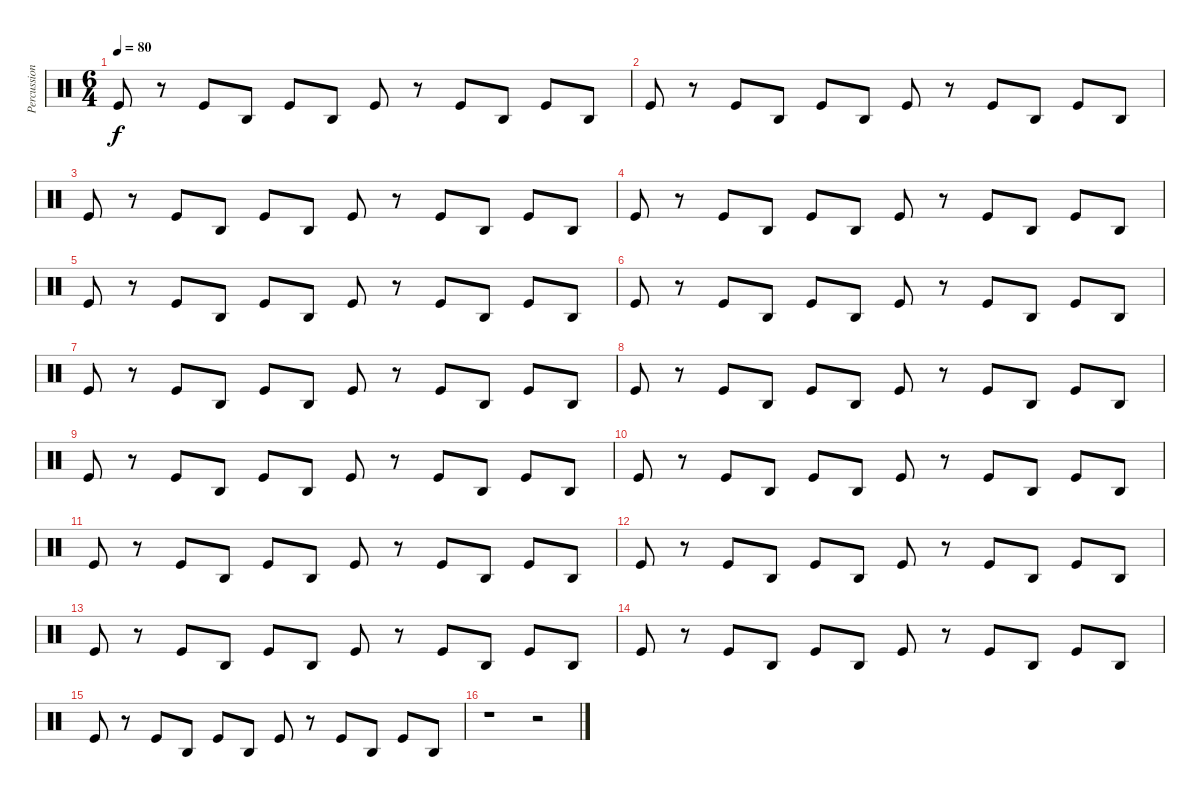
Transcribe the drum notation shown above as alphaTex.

\track ("Percussion" "Percussion") {instrument percussion}
\staff {score}
\articulation defaults
\ts (6 4)
\tempo 80
\clef neutral
\ks c "Kick (hit)".8{dy f}
r.8 "Kick (hit)".8 "Agogo high (hit)".8 "Kick (hit)".8 "Agogo high (hit)".8 "Kick (hit)".8 r.8 "Kick (hit)".8 "Agogo high (hit)".8 "Kick (hit)".8 "Agogo high (hit)".8 |
"Kick (hit)".8 r.8 "Kick (hit)".8 "Agogo high (hit)".8 "Kick (hit)".8 "Agogo high (hit)".8 "Kick (hit)".8 r.8 "Kick (hit)".8 "Agogo high (hit)".8 "Kick (hit)".8 "Agogo high (hit)".8 |
"Kick (hit)".8 r.8 "Kick (hit)".8 "Agogo high (hit)".8 "Kick (hit)".8 "Agogo high (hit)".8 "Kick (hit)".8 r.8 "Kick (hit)".8 "Agogo high (hit)".8 "Kick (hit)".8 "Agogo high (hit)".8 |
"Kick (hit)".8 r.8 "Kick (hit)".8 "Agogo high (hit)".8 "Kick (hit)".8 "Agogo high (hit)".8 "Kick (hit)".8 r.8 "Kick (hit)".8 "Agogo high (hit)".8 "Kick (hit)".8 "Agogo high (hit)".8 |
"Kick (hit)".8 r.8 "Kick (hit)".8 "Agogo high (hit)".8 "Kick (hit)".8 "Agogo high (hit)".8 "Kick (hit)".8 r.8 "Kick (hit)".8 "Agogo high (hit)".8 "Kick (hit)".8 "Agogo high (hit)".8 |
"Kick (hit)".8 r.8 "Kick (hit)".8 "Agogo high (hit)".8 "Kick (hit)".8 "Agogo high (hit)".8 "Kick (hit)".8 r.8 "Kick (hit)".8 "Agogo high (hit)".8 "Kick (hit)".8 "Agogo high (hit)".8 |
"Kick (hit)".8 r.8 "Kick (hit)".8 "Agogo high (hit)".8 "Kick (hit)".8 "Agogo high (hit)".8 "Kick (hit)".8 r.8 "Kick (hit)".8 "Agogo high (hit)".8 "Kick (hit)".8 "Agogo high (hit)".8 |
"Kick (hit)".8 r.8 "Kick (hit)".8 "Agogo high (hit)".8 "Kick (hit)".8 "Agogo high (hit)".8 "Kick (hit)".8 r.8 "Kick (hit)".8 "Agogo high (hit)".8 "Kick (hit)".8 "Agogo high (hit)".8 |
"Kick (hit)".8 r.8 "Kick (hit)".8 "Agogo high (hit)".8 "Kick (hit)".8 "Agogo high (hit)".8 "Kick (hit)".8 r.8 "Kick (hit)".8 "Agogo high (hit)".8 "Kick (hit)".8 "Agogo high (hit)".8 |
"Kick (hit)".8 r.8 "Kick (hit)".8 "Agogo high (hit)".8 "Kick (hit)".8 "Agogo high (hit)".8 "Kick (hit)".8 r.8 "Kick (hit)".8 "Agogo high (hit)".8 "Kick (hit)".8 "Agogo high (hit)".8 |
"Kick (hit)".8 r.8 "Kick (hit)".8 "Agogo high (hit)".8 "Kick (hit)".8 "Agogo high (hit)".8 "Kick (hit)".8 r.8 "Kick (hit)".8 "Agogo high (hit)".8 "Kick (hit)".8 "Agogo high (hit)".8 |
"Kick (hit)".8 r.8 "Kick (hit)".8 "Agogo high (hit)".8 "Kick (hit)".8 "Agogo high (hit)".8 "Kick (hit)".8 r.8 "Kick (hit)".8 "Agogo high (hit)".8 "Kick (hit)".8 "Agogo high (hit)".8 |
"Kick (hit)".8 r.8 "Kick (hit)".8 "Agogo high (hit)".8 "Kick (hit)".8 "Agogo high (hit)".8 "Kick (hit)".8 r.8 "Kick (hit)".8 "Agogo high (hit)".8 "Kick (hit)".8 "Agogo high (hit)".8 |
"Kick (hit)".8 r.8 "Kick (hit)".8 "Agogo high (hit)".8 "Kick (hit)".8 "Agogo high (hit)".8 "Kick (hit)".8 r.8 "Kick (hit)".8 "Agogo high (hit)".8 "Kick (hit)".8 "Agogo high (hit)".8 |
"Kick (hit)".8 r.8 "Kick (hit)".8 "Agogo high (hit)".8 "Kick (hit)".8 "Agogo high (hit)".8 "Kick (hit)".8 r.8 "Kick (hit)".8 "Agogo high (hit)".8 "Kick (hit)".8 "Agogo high (hit)".8 |
r.1 r.2
